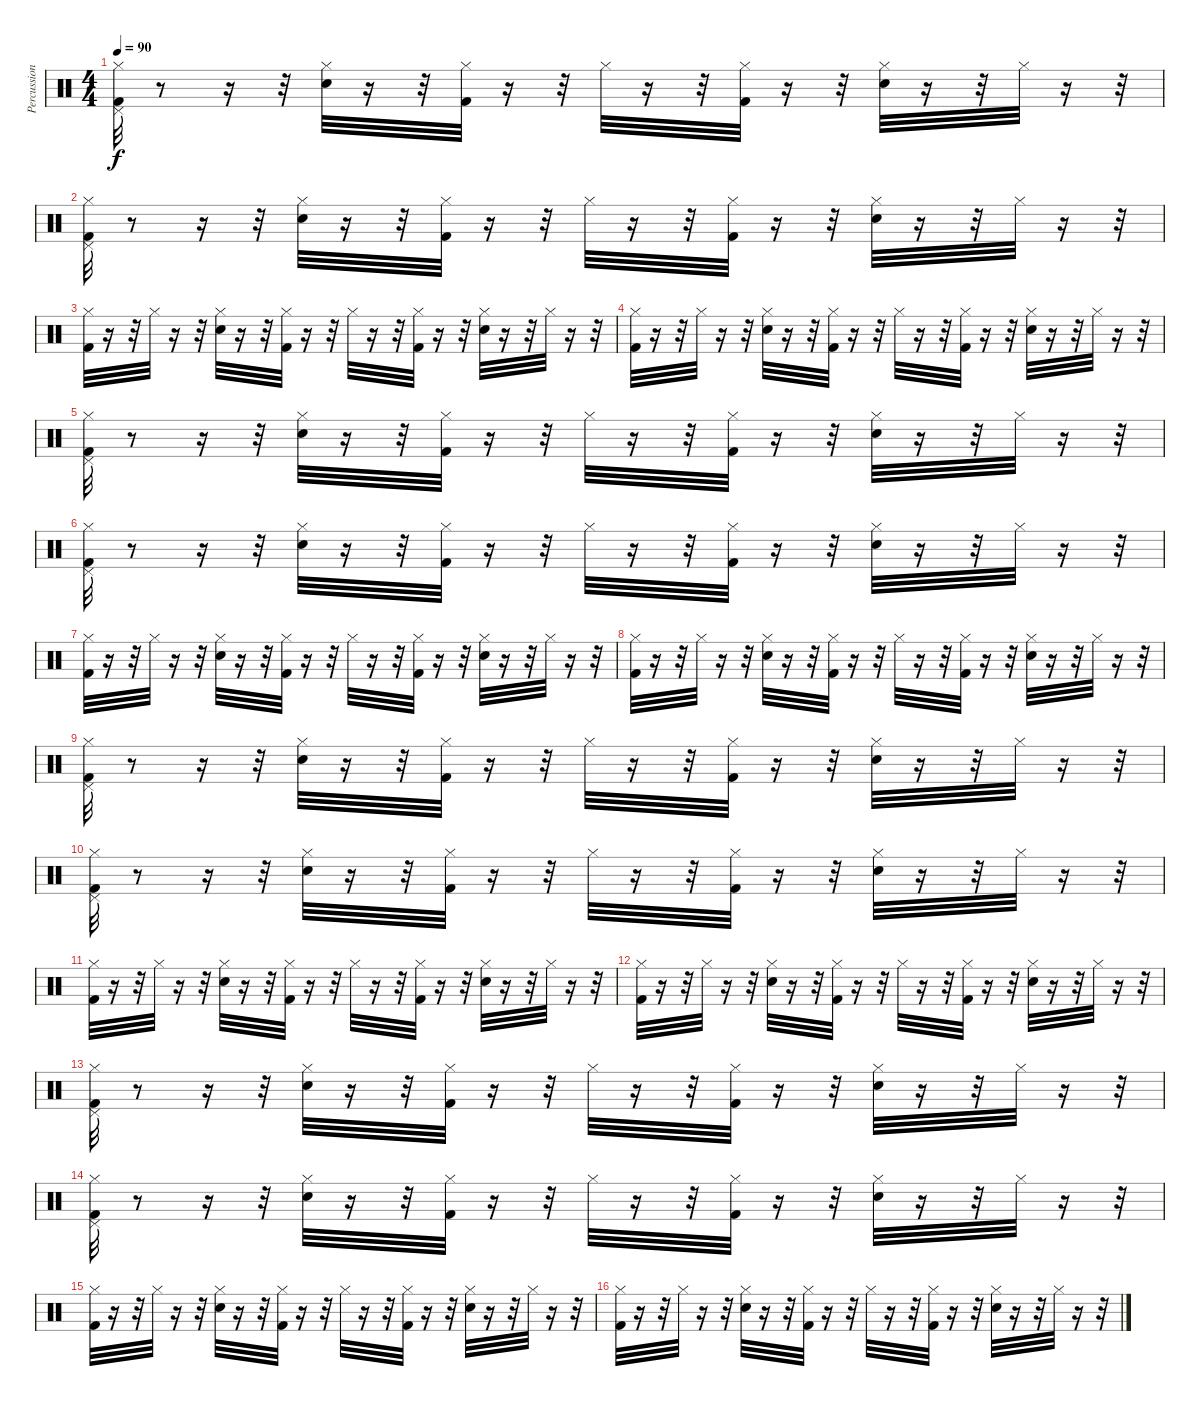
\track ("Percussioni" "Percussion") {instrument percussion}
\staff {score}
\articulation defaults
\ts (4 4)
\tempo 90
\clef neutral
\ks c
("Hi-Hat (closed)" "Pedal Hi-Hat (hit)" "Kick (hit) 2").32{dy f} r.8 r.16 r.32 ("Hi-Hat (closed)" "Electric Snare (hit)").32 r.16 r.32 ("Kick (hit) 2" "Hi-Hat (closed)").32 r.16 r.32 "Hi-Hat (closed)".32 r.16 r.32 ("Kick (hit) 2" "Hi-Hat (closed)").32 r.16 r.32 ("Hi-Hat (closed)" "Electric Snare (hit)").32 r.16 r.32 "Hi-Hat (closed)".32 r.16 r.32 |
("Hi-Hat (closed)" "Pedal Hi-Hat (hit)" "Kick (hit) 2").32 r.8 r.16 r.32 ("Hi-Hat (closed)" "Electric Snare (hit)").32 r.16 r.32 ("Kick (hit) 2" "Hi-Hat (closed)").32 r.16 r.32 "Hi-Hat (closed)".32 r.16 r.32 ("Kick (hit) 2" "Hi-Hat (closed)").32 r.16 r.32 ("Hi-Hat (closed)" "Electric Snare (hit)").32 r.16 r.32 "Hi-Hat (closed)".32 r.16 r.32 |
("Hi-Hat (closed)" "Kick (hit) 2").32 r.16 r.32 "Hi-Hat (closed)".32 r.16 r.32 ("Hi-Hat (closed)" "Electric Snare (hit)").32 r.16 r.32 ("Kick (hit) 2" "Hi-Hat (closed)").32 r.16 r.32 "Hi-Hat (closed)".32 r.16 r.32 ("Kick (hit) 2" "Hi-Hat (closed)").32 r.16 r.32 ("Hi-Hat (closed)" "Electric Snare (hit)").32 r.16 r.32 "Hi-Hat (closed)".32 r.16 r.32 |
("Hi-Hat (closed)" "Kick (hit) 2").32 r.16 r.32 "Hi-Hat (closed)".32 r.16 r.32 ("Hi-Hat (closed)" "Electric Snare (hit)").32 r.16 r.32 ("Kick (hit) 2" "Hi-Hat (closed)").32 r.16 r.32 "Hi-Hat (closed)".32 r.16 r.32 ("Kick (hit) 2" "Hi-Hat (closed)").32 r.16 r.32 ("Hi-Hat (closed)" "Electric Snare (hit)").32 r.16 r.32 "Hi-Hat (closed)".32 r.16 r.32 |
("Hi-Hat (closed)" "Pedal Hi-Hat (hit)" "Kick (hit) 2").32 r.8 r.16 r.32 ("Hi-Hat (closed)" "Electric Snare (hit)").32 r.16 r.32 ("Kick (hit) 2" "Hi-Hat (closed)").32 r.16 r.32 "Hi-Hat (closed)".32 r.16 r.32 ("Kick (hit) 2" "Hi-Hat (closed)").32 r.16 r.32 ("Hi-Hat (closed)" "Electric Snare (hit)").32 r.16 r.32 "Hi-Hat (closed)".32 r.16 r.32 |
("Hi-Hat (closed)" "Pedal Hi-Hat (hit)" "Kick (hit) 2").32 r.8 r.16 r.32 ("Hi-Hat (closed)" "Electric Snare (hit)").32 r.16 r.32 ("Kick (hit) 2" "Hi-Hat (closed)").32 r.16 r.32 "Hi-Hat (closed)".32 r.16 r.32 ("Kick (hit) 2" "Hi-Hat (closed)").32 r.16 r.32 ("Hi-Hat (closed)" "Electric Snare (hit)").32 r.16 r.32 "Hi-Hat (closed)".32 r.16 r.32 |
("Hi-Hat (closed)" "Kick (hit) 2").32 r.16 r.32 "Hi-Hat (closed)".32 r.16 r.32 ("Hi-Hat (closed)" "Electric Snare (hit)").32 r.16 r.32 ("Kick (hit) 2" "Hi-Hat (closed)").32 r.16 r.32 "Hi-Hat (closed)".32 r.16 r.32 ("Kick (hit) 2" "Hi-Hat (closed)").32 r.16 r.32 ("Hi-Hat (closed)" "Electric Snare (hit)").32 r.16 r.32 "Hi-Hat (closed)".32 r.16 r.32 |
("Hi-Hat (closed)" "Kick (hit) 2").32 r.16 r.32 "Hi-Hat (closed)".32 r.16 r.32 ("Hi-Hat (closed)" "Electric Snare (hit)").32 r.16 r.32 ("Kick (hit) 2" "Hi-Hat (closed)").32 r.16 r.32 "Hi-Hat (closed)".32 r.16 r.32 ("Kick (hit) 2" "Hi-Hat (closed)").32 r.16 r.32 ("Hi-Hat (closed)" "Electric Snare (hit)").32 r.16 r.32 "Hi-Hat (closed)".32 r.16 r.32 |
("Hi-Hat (closed)" "Pedal Hi-Hat (hit)" "Kick (hit) 2").32{volume 16} r.8 r.16 r.32 ("Hi-Hat (closed)" "Electric Snare (hit)").32 r.16 r.32 ("Kick (hit) 2" "Hi-Hat (closed)").32 r.16 r.32 "Hi-Hat (closed)".32 r.16 r.32 ("Kick (hit) 2" "Hi-Hat (closed)").32 r.16 r.32 ("Hi-Hat (closed)" "Electric Snare (hit)").32 r.16 r.32 "Hi-Hat (closed)".32 r.16 r.32 |
("Hi-Hat (closed)" "Pedal Hi-Hat (hit)" "Kick (hit) 2").32 r.8 r.16 r.32 ("Hi-Hat (closed)" "Electric Snare (hit)").32 r.16 r.32 ("Kick (hit) 2" "Hi-Hat (closed)").32 r.16 r.32 "Hi-Hat (closed)".32 r.16 r.32 ("Kick (hit) 2" "Hi-Hat (closed)").32 r.16 r.32 ("Hi-Hat (closed)" "Electric Snare (hit)").32 r.16 r.32 "Hi-Hat (closed)".32 r.16 r.32 |
("Hi-Hat (closed)" "Kick (hit) 2").32 r.16 r.32 "Hi-Hat (closed)".32 r.16 r.32 ("Hi-Hat (closed)" "Electric Snare (hit)").32 r.16 r.32 ("Kick (hit) 2" "Hi-Hat (closed)").32 r.16 r.32 "Hi-Hat (closed)".32 r.16 r.32 ("Kick (hit) 2" "Hi-Hat (closed)").32 r.16 r.32 ("Hi-Hat (closed)" "Electric Snare (hit)").32 r.16 r.32 "Hi-Hat (closed)".32 r.16 r.32 |
("Hi-Hat (closed)" "Kick (hit) 2").32 r.16 r.32 "Hi-Hat (closed)".32 r.16 r.32 ("Hi-Hat (closed)" "Electric Snare (hit)").32 r.16 r.32 ("Kick (hit) 2" "Hi-Hat (closed)").32 r.16 r.32 "Hi-Hat (closed)".32 r.16 r.32 ("Kick (hit) 2" "Hi-Hat (closed)").32 r.16 r.32 ("Hi-Hat (closed)" "Electric Snare (hit)").32 r.16 r.32 "Hi-Hat (closed)".32 r.16 r.32 |
("Hi-Hat (closed)" "Pedal Hi-Hat (hit)" "Kick (hit) 2").32 r.8 r.16 r.32 ("Hi-Hat (closed)" "Electric Snare (hit)").32 r.16 r.32 ("Kick (hit) 2" "Hi-Hat (closed)").32 r.16 r.32 "Hi-Hat (closed)".32 r.16 r.32 ("Kick (hit) 2" "Hi-Hat (closed)").32 r.16 r.32 ("Hi-Hat (closed)" "Electric Snare (hit)").32 r.16 r.32 "Hi-Hat (closed)".32 r.16 r.32 |
("Hi-Hat (closed)" "Pedal Hi-Hat (hit)" "Kick (hit) 2").32 r.8 r.16 r.32 ("Hi-Hat (closed)" "Electric Snare (hit)").32 r.16 r.32 ("Kick (hit) 2" "Hi-Hat (closed)").32 r.16 r.32 "Hi-Hat (closed)".32 r.16 r.32 ("Kick (hit) 2" "Hi-Hat (closed)").32 r.16 r.32 ("Hi-Hat (closed)" "Electric Snare (hit)").32 r.16 r.32 "Hi-Hat (closed)".32 r.16 r.32 |
("Hi-Hat (closed)" "Kick (hit) 2").32 r.16 r.32 "Hi-Hat (closed)".32 r.16 r.32 ("Hi-Hat (closed)" "Electric Snare (hit)").32 r.16 r.32 ("Kick (hit) 2" "Hi-Hat (closed)").32 r.16 r.32 "Hi-Hat (closed)".32 r.16 r.32 ("Kick (hit) 2" "Hi-Hat (closed)").32 r.16 r.32 ("Hi-Hat (closed)" "Electric Snare (hit)").32 r.16 r.32 "Hi-Hat (closed)".32 r.16 r.32 |
("Hi-Hat (closed)" "Kick (hit) 2").32 r.16 r.32 "Hi-Hat (closed)".32 r.16 r.32 ("Hi-Hat (closed)" "Electric Snare (hit)").32 r.16 r.32 ("Kick (hit) 2" "Hi-Hat (closed)").32 r.16 r.32 "Hi-Hat (closed)".32 r.16 r.32 ("Kick (hit) 2" "Hi-Hat (closed)").32 r.16 r.32 ("Hi-Hat (closed)" "Electric Snare (hit)").32 r.16 r.32 "Hi-Hat (closed)".32 r.16 r.32
